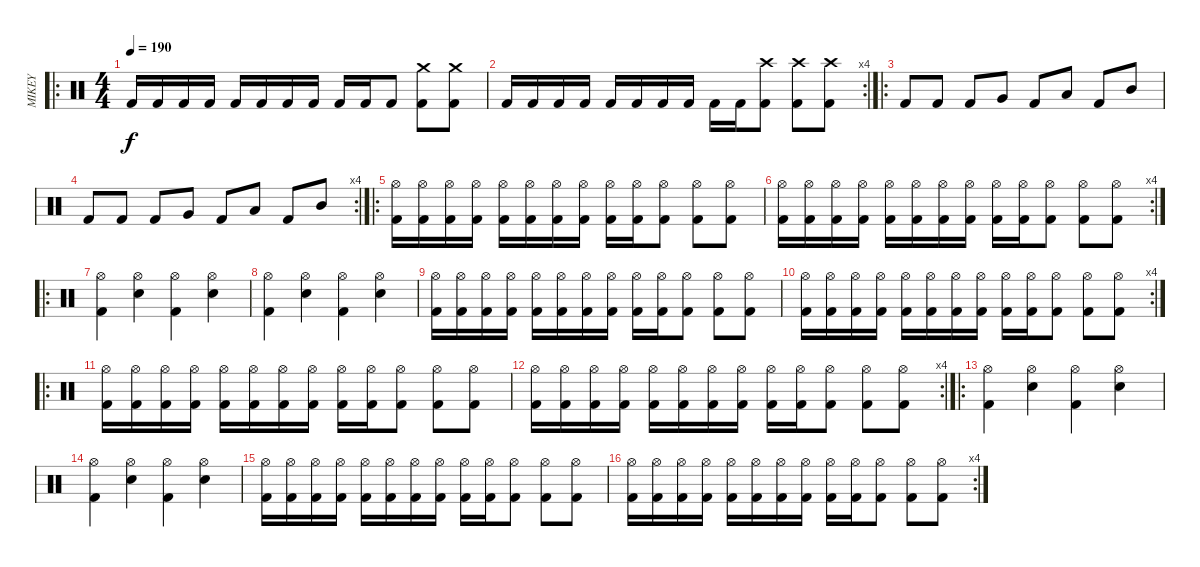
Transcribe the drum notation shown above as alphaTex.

\track ("MIKEY" "MIKEY") {instrument percussion}
\staff {score}
\articulation defaults
\ro
\ts (4 4)
\tempo 190
\clef neutral
\ks c "Kick (hit) 2".16{dy f} "Kick (hit) 2".16 "Kick (hit) 2".16 "Kick (hit) 2".16 "Kick (hit) 2".16 "Kick (hit) 2".16 "Kick (hit) 2".16 "Kick (hit) 2".16 "Kick (hit) 2".16 "Kick (hit) 2".16 "Kick (hit) 2".8
("Crash medium (hit)" "Kick (hit) 2").8 ("Crash medium (hit)" "Kick (hit) 2").8 |
\rc 4 "Kick (hit) 2".16 "Kick (hit) 2".16 "Kick (hit) 2".16 "Kick (hit) 2".16 "Kick (hit) 2".16 "Kick (hit) 2".16 "Kick (hit) 2".16 "Kick (hit) 2".16 "Kick (hit) 2".16 "Kick (hit) 2".16
("Crash high (hit)" "Kick (hit) 2").8 ("Crash high (hit)" "Kick (hit) 2").8 ("Crash high (hit)" "Kick (hit) 2").8 |
\ro "Kick (hit) 2".8 "Kick (hit) 2".8 "Kick (hit) 2".8 "Very Low Tom (hit)".8 "Kick (hit) 2".8 "Low Tom (hit)".8 "Kick (hit) 2".8 "Mid Tom (hit)".8
|
\rc 4 "Kick (hit) 2".8 "Kick (hit) 2".8 "Kick (hit) 2".8 "Very Low Tom (hit)".8 "Kick (hit) 2".8 "Low Tom (hit)".8 "Kick (hit) 2".8 "Mid Tom (hit)".8
|
\ro
("Hi-Hat (open)" "Kick (hit) 2").16 ("Hi-Hat (open)" "Kick (hit) 2").16 ("Hi-Hat (open)" "Kick (hit) 2").16 ("Hi-Hat (open)" "Kick (hit) 2").16 ("Hi-Hat (open)" "Kick (hit) 2").16 ("Hi-Hat (open)" "Kick (hit) 2").16 ("Hi-Hat (open)" "Kick (hit) 2").16 ("Hi-Hat (open)" "Kick (hit) 2").16 ("Hi-Hat (open)" "Kick (hit) 2").16 ("Hi-Hat (open)" "Kick (hit) 2").16 ("Hi-Hat (open)" "Kick (hit) 2").8 ("Hi-Hat (open)" "Kick (hit) 2").8 ("Hi-Hat (open)" "Kick (hit) 2").8 |
\rc 4
("Hi-Hat (open)" "Kick (hit) 2").16 ("Hi-Hat (open)" "Kick (hit) 2").16 ("Hi-Hat (open)" "Kick (hit) 2").16 ("Hi-Hat (open)" "Kick (hit) 2").16 ("Hi-Hat (open)" "Kick (hit) 2").16 ("Hi-Hat (open)" "Kick (hit) 2").16 ("Hi-Hat (open)" "Kick (hit) 2").16 ("Hi-Hat (open)" "Kick (hit) 2").16 ("Hi-Hat (open)" "Kick (hit) 2").16 ("Hi-Hat (open)" "Kick (hit) 2").16 ("Hi-Hat (open)" "Kick (hit) 2").8 ("Hi-Hat (open)" "Kick (hit) 2").8 ("Hi-Hat (open)" "Kick (hit) 2").8 |
\ro
("Hi-Hat (open)" "Kick (hit) 2").4 ("Hi-Hat (open)" "Snare (hit) 2").4 ("Hi-Hat (open)" "Kick (hit) 2").4 ("Hi-Hat (open)" "Snare (hit) 2").4 |
("Hi-Hat (open)" "Kick (hit) 2").4 ("Hi-Hat (open)" "Snare (hit) 2").4 ("Hi-Hat (open)" "Kick (hit) 2").4 ("Hi-Hat (open)" "Snare (hit) 2").4 |
("Hi-Hat (open)" "Kick (hit) 2").16 ("Hi-Hat (open)" "Kick (hit) 2").16 ("Hi-Hat (open)" "Kick (hit) 2").16 ("Hi-Hat (open)" "Kick (hit) 2").16 ("Hi-Hat (open)" "Kick (hit) 2").16 ("Hi-Hat (open)" "Kick (hit) 2").16 ("Hi-Hat (open)" "Kick (hit) 2").16 ("Hi-Hat (open)" "Kick (hit) 2").16 ("Hi-Hat (open)" "Kick (hit) 2").16 ("Hi-Hat (open)" "Kick (hit) 2").16 ("Hi-Hat (open)" "Kick (hit) 2").8 ("Hi-Hat (open)" "Kick (hit) 2").8 ("Hi-Hat (open)" "Kick (hit) 2").8 |
\rc 4
("Hi-Hat (open)" "Kick (hit) 2").16 ("Hi-Hat (open)" "Kick (hit) 2").16 ("Hi-Hat (open)" "Kick (hit) 2").16 ("Hi-Hat (open)" "Kick (hit) 2").16 ("Hi-Hat (open)" "Kick (hit) 2").16 ("Hi-Hat (open)" "Kick (hit) 2").16 ("Hi-Hat (open)" "Kick (hit) 2").16 ("Hi-Hat (open)" "Kick (hit) 2").16 ("Hi-Hat (open)" "Kick (hit) 2").16 ("Hi-Hat (open)" "Kick (hit) 2").16 ("Hi-Hat (open)" "Kick (hit) 2").8 ("Hi-Hat (open)" "Kick (hit) 2").8 ("Hi-Hat (open)" "Kick (hit) 2").8 |
\ro
("Hi-Hat (open)" "Kick (hit) 2").16 ("Hi-Hat (open)" "Kick (hit) 2").16 ("Hi-Hat (open)" "Kick (hit) 2").16 ("Hi-Hat (open)" "Kick (hit) 2").16 ("Hi-Hat (open)" "Kick (hit) 2").16 ("Hi-Hat (open)" "Kick (hit) 2").16 ("Hi-Hat (open)" "Kick (hit) 2").16 ("Hi-Hat (open)" "Kick (hit) 2").16 ("Hi-Hat (open)" "Kick (hit) 2").16 ("Hi-Hat (open)" "Kick (hit) 2").16 ("Hi-Hat (open)" "Kick (hit) 2").8 ("Hi-Hat (open)" "Kick (hit) 2").8 ("Hi-Hat (open)" "Kick (hit) 2").8 |
\rc 4
("Hi-Hat (open)" "Kick (hit) 2").16 ("Hi-Hat (open)" "Kick (hit) 2").16 ("Hi-Hat (open)" "Kick (hit) 2").16 ("Hi-Hat (open)" "Kick (hit) 2").16 ("Hi-Hat (open)" "Kick (hit) 2").16 ("Hi-Hat (open)" "Kick (hit) 2").16 ("Hi-Hat (open)" "Kick (hit) 2").16 ("Hi-Hat (open)" "Kick (hit) 2").16 ("Hi-Hat (open)" "Kick (hit) 2").16 ("Hi-Hat (open)" "Kick (hit) 2").16 ("Hi-Hat (open)" "Kick (hit) 2").8 ("Hi-Hat (open)" "Kick (hit) 2").8 ("Hi-Hat (open)" "Kick (hit) 2").8 |
\ro
("Hi-Hat (open)" "Kick (hit) 2").4 ("Hi-Hat (open)" "Snare (hit) 2").4 ("Hi-Hat (open)" "Kick (hit) 2").4 ("Hi-Hat (open)" "Snare (hit) 2").4 |
("Hi-Hat (open)" "Kick (hit) 2").4 ("Hi-Hat (open)" "Snare (hit) 2").4 ("Hi-Hat (open)" "Kick (hit) 2").4 ("Hi-Hat (open)" "Snare (hit) 2").4 |
("Hi-Hat (open)" "Kick (hit) 2").16 ("Hi-Hat (open)" "Kick (hit) 2").16 ("Hi-Hat (open)" "Kick (hit) 2").16 ("Hi-Hat (open)" "Kick (hit) 2").16 ("Hi-Hat (open)" "Kick (hit) 2").16 ("Hi-Hat (open)" "Kick (hit) 2").16 ("Hi-Hat (open)" "Kick (hit) 2").16 ("Hi-Hat (open)" "Kick (hit) 2").16 ("Hi-Hat (open)" "Kick (hit) 2").16 ("Hi-Hat (open)" "Kick (hit) 2").16 ("Hi-Hat (open)" "Kick (hit) 2").8 ("Hi-Hat (open)" "Kick (hit) 2").8 ("Hi-Hat (open)" "Kick (hit) 2").8 |
\rc 4
("Hi-Hat (open)" "Kick (hit) 2").16 ("Hi-Hat (open)" "Kick (hit) 2").16 ("Hi-Hat (open)" "Kick (hit) 2").16 ("Hi-Hat (open)" "Kick (hit) 2").16 ("Hi-Hat (open)" "Kick (hit) 2").16 ("Hi-Hat (open)" "Kick (hit) 2").16 ("Hi-Hat (open)" "Kick (hit) 2").16 ("Hi-Hat (open)" "Kick (hit) 2").16 ("Hi-Hat (open)" "Kick (hit) 2").16 ("Hi-Hat (open)" "Kick (hit) 2").16 ("Hi-Hat (open)" "Kick (hit) 2").8 ("Hi-Hat (open)" "Kick (hit) 2").8 ("Hi-Hat (open)" "Kick (hit) 2").8
